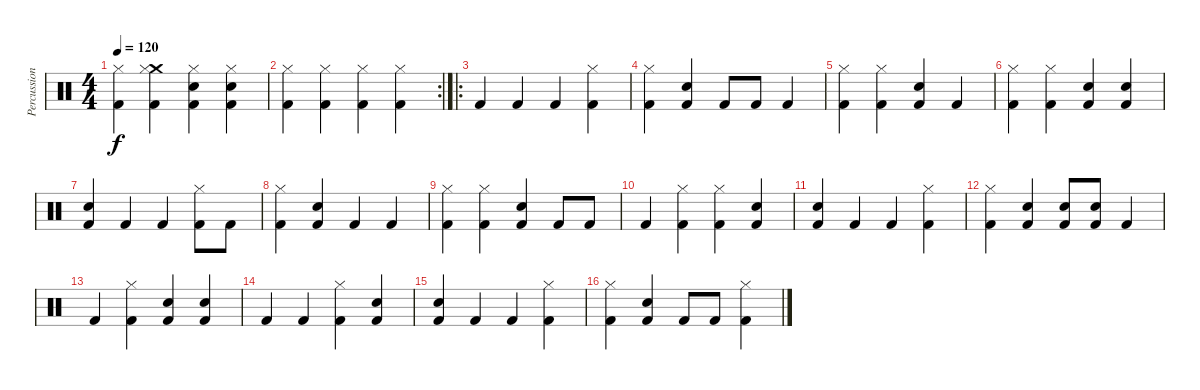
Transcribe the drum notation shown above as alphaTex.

\track ("Percussion" "Percussion") {instrument percussion}
\staff {score}
\articulation defaults
\ts (4 4)
\tempo 120
\clef neutral
\ks c
("Hi-Hat (closed)" "Kick (hit) 2").4{dy f} ("Crash medium (hit)" "Hi-Hat (closed)" "Kick (hit) 2").4 ("Snare (hit) 2" "Hi-Hat (closed)" "Kick (hit) 2").4 ("Snare (hit) 2" "Hi-Hat (closed)" "Kick (hit) 2").4 |
\rc 2
("Hi-Hat (closed)" "Kick (hit) 2").4 ("Hi-Hat (closed)" "Kick (hit) 2").4 ("Hi-Hat (closed)" "Kick (hit) 2").4 ("Hi-Hat (closed)" "Kick (hit) 2").4 |
\ro "Kick (hit) 2".4 "Kick (hit) 2".4 "Kick (hit) 2".4
("Hi-Hat (closed)" "Kick (hit) 2").4 |
("Hi-Hat (closed)" "Kick (hit) 2").4 ("Snare (hit) 2" "Kick (hit) 2").4 "Kick (hit) 2".8 "Kick (hit) 2".8 "Kick (hit) 2".4 |
("Hi-Hat (closed)" "Kick (hit) 2").4 ("Hi-Hat (closed)" "Kick (hit) 2").4 ("Snare (hit) 2" "Kick (hit) 2").4 "Kick (hit) 2".4 |
("Hi-Hat (closed)" "Kick (hit) 2").4 ("Hi-Hat (closed)" "Kick (hit) 2").4 ("Snare (hit) 2" "Kick (hit) 2").4 ("Snare (hit) 2" "Kick (hit) 2").4 |
("Snare (hit) 2" "Kick (hit) 2").4 "Kick (hit) 2".4 "Kick (hit) 2".4 ("Hi-Hat (closed)" "Kick (hit) 2").8 "Kick (hit) 2".8 |
("Hi-Hat (closed)" "Kick (hit) 2").4 ("Snare (hit) 2" "Kick (hit) 2").4 "Kick (hit) 2".4 "Kick (hit) 2".4 |
("Hi-Hat (closed)" "Kick (hit) 2").4 ("Hi-Hat (closed)" "Kick (hit) 2").4 ("Snare (hit) 2" "Kick (hit) 2").4 "Kick (hit) 2".8 "Kick (hit) 2".8 |
"Kick (hit) 2".4 ("Hi-Hat (closed)" "Kick (hit) 2").4 ("Hi-Hat (closed)" "Kick (hit) 2").4 ("Snare (hit) 2" "Kick (hit) 2").4 |
("Snare (hit) 2" "Kick (hit) 2").4 "Kick (hit) 2".4 "Kick (hit) 2".4 ("Hi-Hat (closed)" "Kick (hit) 2").4 |
("Hi-Hat (closed)" "Kick (hit) 2").4 ("Snare (hit) 2" "Kick (hit) 2").4 ("Snare (hit) 2" "Kick (hit) 2").8 ("Snare (hit) 2" "Kick (hit) 2").8 "Kick (hit) 2".4 |
"Kick (hit) 2".4 ("Hi-Hat (closed)" "Kick (hit) 2").4 ("Snare (hit) 2" "Kick (hit) 2").4 ("Snare (hit) 2" "Kick (hit) 2").4 |
"Kick (hit) 2".4 "Kick (hit) 2".4 ("Hi-Hat (closed)" "Kick (hit) 2").4 ("Snare (hit) 2" "Kick (hit) 2").4 |
("Snare (hit) 2" "Kick (hit) 2").4 "Kick (hit) 2".4 "Kick (hit) 2".4 ("Hi-Hat (closed)" "Kick (hit) 2").4 |
("Hi-Hat (closed)" "Kick (hit) 2").4 ("Snare (hit) 2" "Kick (hit) 2").4 "Kick (hit) 2".8 "Kick (hit) 2".8 ("Hi-Hat (closed)" "Kick (hit) 2").4
